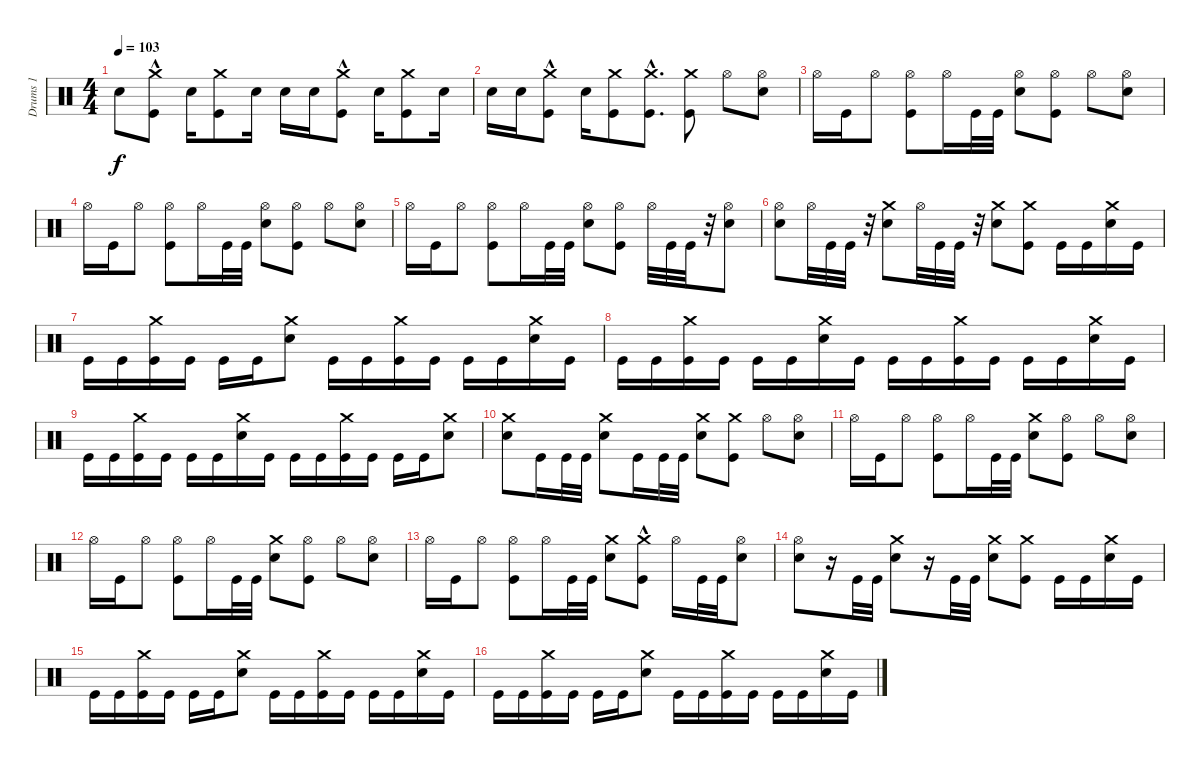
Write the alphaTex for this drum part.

\track ("Drums 1" "Drums 1") {instrument percussion}
\staff {score}
\articulation defaults
\ts (4 4)
\tempo 103
\clef neutral
\ks c "Electric Snare (hit)".8{dy f}
("Kick (hit)"{hac} "Crash medium (hit)").8 "Electric Snare (hit)".16 ("Kick (hit)" "Crash medium (hit)").8 "Electric Snare (hit)".16 "Electric Snare (hit)".16 "Electric Snare (hit)".16 ("Kick (hit)"{hac} "Crash medium (hit)").8 "Electric Snare (hit)".16 ("Crash medium (hit)" "Kick (hit)").8 "Electric Snare (hit)".16 |
"Electric Snare (hit)".16 "Electric Snare (hit)".16 ("Kick (hit)"{hac} "Crash medium (hit)").8 "Electric Snare (hit)".16 ("Kick (hit)" "Crash medium (hit)").8 ("Kick (hit)"{hac} "Crash medium (hit)"{hac}).8{d} ("Kick (hit)" "Crash medium (hit)").8 "Hi-Hat (open)".8 ("Electric Snare (hit)" "Hi-Hat (open)").8 |
"Hi-Hat (open)".16 "Kick (hit)".16 "Hi-Hat (open)".8 ("Kick (hit)" "Hi-Hat (open)").8 "Hi-Hat (open)".16 "Kick (hit)".32 "Kick (hit)".32 ("Electric Snare (hit)" "Hi-Hat (open)").8 ("Kick (hit)" "Hi-Hat (open)").8 "Hi-Hat (open)".8 ("Electric Snare (hit)" "Hi-Hat (open)").8 |
"Hi-Hat (open)".16 "Kick (hit)".16 "Hi-Hat (open)".8 ("Kick (hit)" "Hi-Hat (open)").8 "Hi-Hat (open)".16 "Kick (hit)".32 "Kick (hit)".32 ("Electric Snare (hit)" "Hi-Hat (open)").8 ("Kick (hit)" "Hi-Hat (open)").8 "Hi-Hat (open)".8 ("Electric Snare (hit)" "Hi-Hat (open)").8 |
"Hi-Hat (open)".16 "Kick (hit)".16 "Hi-Hat (open)".8 ("Kick (hit)" "Hi-Hat (open)").8 "Hi-Hat (open)".16 "Kick (hit)".32 "Kick (hit)".32 ("Electric Snare (hit)" "Hi-Hat (open)").8 ("Kick (hit)" "Hi-Hat (open)").8 "Hi-Hat (open)".32 "Kick (hit)".32 "Kick (hit)".32 r.32 ("Electric Snare (hit)" "Hi-Hat (open)").8 |
("Electric Snare (hit)" "Hi-Hat (open)").8 "Hi-Hat (open)".32 "Kick (hit)".32 "Kick (hit)".32 r.32 ("Electric Snare (hit)" "Crash medium (hit)").8 "Hi-Hat (open)".32 "Kick (hit)".32 "Kick (hit)".32 r.32 ("Electric Snare (hit)" "Crash medium (hit)").8 ("Kick (hit)" "Crash medium (hit)").8 "Kick (hit)".16 "Kick (hit)".16 ("Electric Snare (hit)" "Crash medium (hit)").16 "Kick (hit)".16 |
"Kick (hit)".16 "Kick (hit)".16 ("Kick (hit)" "Crash medium (hit)").16 "Kick (hit)".16 "Kick (hit)".16 "Kick (hit)".16 ("Electric Snare (hit)" "Crash medium (hit)").8 "Kick (hit)".16 "Kick (hit)".16 ("Kick (hit)" "Crash medium (hit)").16 "Kick (hit)".16 "Kick (hit)".16 "Kick (hit)".16 ("Electric Snare (hit)" "Crash medium (hit)").16 "Kick (hit)".16 |
"Kick (hit)".16 "Kick (hit)".16 ("Kick (hit)" "Crash medium (hit)").16 "Kick (hit)".16 "Kick (hit)".16 "Kick (hit)".16 ("Electric Snare (hit)" "Crash medium (hit)").16 "Kick (hit)".16 "Kick (hit)".16 "Kick (hit)".16 ("Kick (hit)" "Crash medium (hit)").16 "Kick (hit)".16 "Kick (hit)".16 "Kick (hit)".16 ("Electric Snare (hit)" "Crash medium (hit)").16 "Kick (hit)".16 |
"Kick (hit)".16 "Kick (hit)".16 ("Kick (hit)" "Crash medium (hit)").16 "Kick (hit)".16 "Kick (hit)".16 "Kick (hit)".16 ("Electric Snare (hit)" "Crash medium (hit)").16 "Kick (hit)".16 "Kick (hit)".16 "Kick (hit)".16 ("Kick (hit)" "Crash medium (hit)").16 "Kick (hit)".16 "Kick (hit)".16 "Kick (hit)".16 ("Electric Snare (hit)" "Crash medium (hit)").8 |
("Electric Snare (hit)" "Crash medium (hit)").8 "Kick (hit)".16 "Kick (hit)".32 "Kick (hit)".32 ("Electric Snare (hit)" "Crash medium (hit)").8 "Kick (hit)".16 "Kick (hit)".32 "Kick (hit)".32 ("Electric Snare (hit)" "Crash medium (hit)").8 ("Kick (hit)" "Crash medium (hit)").8 "Hi-Hat (open)".8 ("Electric Snare (hit)" "Hi-Hat (open)").8 |
"Hi-Hat (open)".16 "Kick (hit)".16 "Hi-Hat (open)".8 ("Kick (hit)" "Hi-Hat (open)").8 "Hi-Hat (open)".16 "Kick (hit)".32 "Kick (hit)".32 ("Electric Snare (hit)" "Crash medium (hit)").8 ("Kick (hit)" "Hi-Hat (open)").8 "Hi-Hat (open)".8 ("Electric Snare (hit)" "Hi-Hat (open)").8 |
"Hi-Hat (open)".16 "Kick (hit)".16 "Hi-Hat (open)".8 ("Kick (hit)" "Hi-Hat (open)").8 "Hi-Hat (open)".16 "Kick (hit)".32 "Kick (hit)".32 ("Electric Snare (hit)" "Crash medium (hit)").8 ("Kick (hit)" "Hi-Hat (open)").8 "Hi-Hat (open)".8 ("Electric Snare (hit)" "Hi-Hat (open)").8 |
"Hi-Hat (open)".16 "Kick (hit)".16 "Hi-Hat (open)".8 ("Kick (hit)" "Hi-Hat (open)").8 "Hi-Hat (open)".16 "Kick (hit)".32 "Kick (hit)".32 ("Electric Snare (hit)" "Crash medium (hit)").8 ("Kick (hit)"{hac} "Crash medium (hit)").8 "Hi-Hat (open)".16 "Kick (hit)".32 "Kick (hit)".32 ("Electric Snare (hit)" "Hi-Hat (open)").8 |
("Electric Snare (hit)" "Hi-Hat (open)").8 r.16 "Kick (hit)".32 "Kick (hit)".32 ("Crash medium (hit)" "Electric Snare (hit)").8 r.16 "Kick (hit)".32 "Kick (hit)".32 ("Crash medium (hit)" "Electric Snare (hit)").8 ("Kick (hit)" "Crash medium (hit)").8 "Kick (hit)".16 "Kick (hit)".16 ("Electric Snare (hit)" "Crash medium (hit)").16 "Kick (hit)".16 |
"Kick (hit)".16 "Kick (hit)".16 ("Kick (hit)" "Crash medium (hit)").16 "Kick (hit)".16 "Kick (hit)".16 "Kick (hit)".16 ("Electric Snare (hit)" "Crash medium (hit)").8 "Kick (hit)".16 "Kick (hit)".16 ("Kick (hit)" "Crash medium (hit)").16 "Kick (hit)".16 "Kick (hit)".16 "Kick (hit)".16 ("Electric Snare (hit)" "Crash medium (hit)").16 "Kick (hit)".16 |
"Kick (hit)".16 "Kick (hit)".16 ("Kick (hit)" "Crash medium (hit)").16 "Kick (hit)".16 "Kick (hit)".16 "Kick (hit)".16 ("Electric Snare (hit)" "Crash medium (hit)").8 "Kick (hit)".16 "Kick (hit)".16 ("Kick (hit)" "Crash medium (hit)").16 "Kick (hit)".16 "Kick (hit)".16 "Kick (hit)".16 ("Electric Snare (hit)" "Crash medium (hit)").16 "Kick (hit)".16
